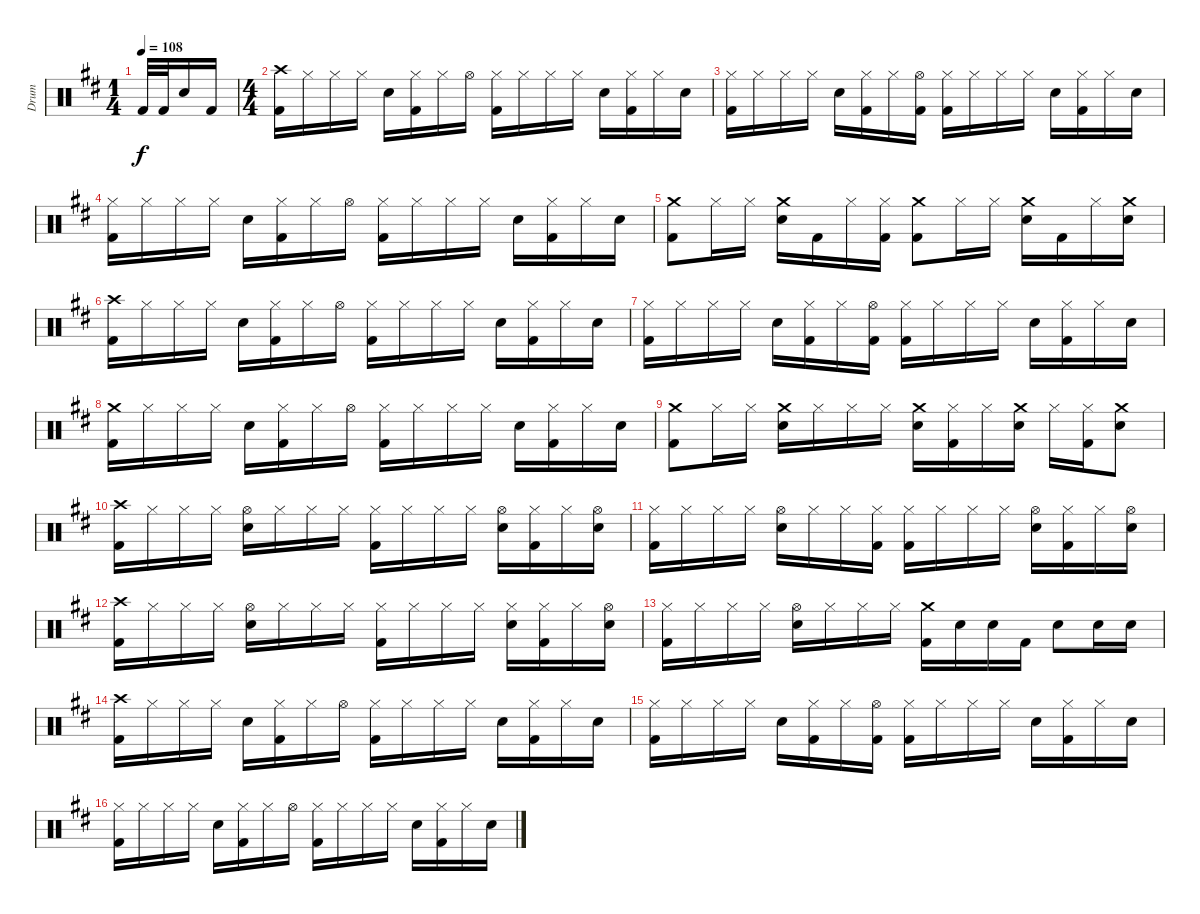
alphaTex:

\track ("Drum" "Drum") {instrument percussion}
\staff {score}
\articulation defaults
\ts (1 4)
\tempo 108
\clef neutral
\ks d "Kick (hit) 2".32{dy f} "Kick (hit) 2".32 "Snare (hit) 2".16 "Kick (hit) 2".16
|
\ts (4 4)
("Crash high (hit)" "Kick (hit) 2").16 "Hi-Hat (closed)".16 "Hi-Hat (closed)".16 "Hi-Hat (closed)".16 "Snare (hit) 2".16 ("Hi-Hat (closed)" "Kick (hit) 2").16 "Hi-Hat (closed)".16 "Hi-Hat (open)".16 ("Hi-Hat (closed)" "Kick (hit) 2").16 "Hi-Hat (closed)".16 "Hi-Hat (closed)".16 "Hi-Hat (closed)".16 "Snare (hit) 2".16 ("Hi-Hat (closed)" "Kick (hit) 2").16 "Hi-Hat (closed)".16 "Snare (hit) 2".16 |
("Hi-Hat (closed)" "Kick (hit) 2").16 "Hi-Hat (closed)".16 "Hi-Hat (closed)".16 "Hi-Hat (closed)".16 "Snare (hit) 2".16 ("Hi-Hat (closed)" "Kick (hit) 2").16 "Hi-Hat (closed)".16 ("Hi-Hat (open)" "Kick (hit) 2").16 ("Hi-Hat (closed)" "Kick (hit) 2").16 "Hi-Hat (closed)".16 "Hi-Hat (closed)".16 "Hi-Hat (closed)".16 "Snare (hit) 2".16 ("Hi-Hat (closed)" "Kick (hit) 2").16 "Hi-Hat (closed)".16 "Snare (hit) 2".16 |
("Hi-Hat (closed)" "Kick (hit) 2").16 "Hi-Hat (closed)".16 "Hi-Hat (closed)".16 "Hi-Hat (closed)".16 "Snare (hit) 2".16 ("Hi-Hat (closed)" "Kick (hit) 2").16 "Hi-Hat (closed)".16 "Hi-Hat (open)".16 ("Hi-Hat (closed)" "Kick (hit) 2").16 "Hi-Hat (closed)".16 "Hi-Hat (closed)".16 "Hi-Hat (closed)".16 "Snare (hit) 2".16 ("Hi-Hat (closed)" "Kick (hit) 2").16 "Hi-Hat (closed)".16 "Snare (hit) 2".16 |
("Crash medium (hit)" "Kick (hit) 2").8 "Hi-Hat (closed)".16 "Hi-Hat (closed)".16 ("Crash medium (hit)" "Snare (hit) 2").16 "Kick (hit) 2".16 "Hi-Hat (closed)".16 ("Hi-Hat (closed)" "Kick (hit) 2").16 ("Crash medium (hit)" "Kick (hit) 2").8 "Hi-Hat (closed)".16 "Hi-Hat (closed)".16 ("Crash medium (hit)" "Snare (hit) 2").16 "Kick (hit) 2".16 "Hi-Hat (closed)".16 ("Crash medium (hit)" "Snare (hit) 2").16 |
("Crash high (hit)" "Kick (hit) 2").16 "Hi-Hat (closed)".16 "Hi-Hat (closed)".16 "Hi-Hat (closed)".16 "Snare (hit) 2".16 ("Hi-Hat (closed)" "Kick (hit) 2").16 "Hi-Hat (closed)".16 "Hi-Hat (open)".16 ("Hi-Hat (closed)" "Kick (hit) 2").16 "Hi-Hat (closed)".16 "Hi-Hat (closed)".16 "Hi-Hat (closed)".16 "Snare (hit) 2".16 ("Hi-Hat (closed)" "Kick (hit) 2").16 "Hi-Hat (closed)".16 "Snare (hit) 2".16 |
("Hi-Hat (closed)" "Kick (hit) 2").16 "Hi-Hat (closed)".16 "Hi-Hat (closed)".16 "Hi-Hat (closed)".16 "Snare (hit) 2".16 ("Hi-Hat (closed)" "Kick (hit) 2").16 "Hi-Hat (closed)".16 ("Hi-Hat (open)" "Kick (hit) 2").16 ("Hi-Hat (closed)" "Kick (hit) 2").16 "Hi-Hat (closed)".16 "Hi-Hat (closed)".16 "Hi-Hat (closed)".16 "Snare (hit) 2".16 ("Hi-Hat (closed)" "Kick (hit) 2").16 "Hi-Hat (closed)".16 "Snare (hit) 2".16 |
("Crash medium (hit)" "Kick (hit) 2").16 "Hi-Hat (closed)".16 "Hi-Hat (closed)".16 "Hi-Hat (closed)".16 "Snare (hit) 2".16 ("Hi-Hat (closed)" "Kick (hit) 2").16 "Hi-Hat (closed)".16 "Hi-Hat (open)".16 ("Hi-Hat (closed)" "Kick (hit) 2").16 "Hi-Hat (closed)".16 "Hi-Hat (closed)".16 "Hi-Hat (closed)".16 "Snare (hit) 2".16 ("Hi-Hat (closed)" "Kick (hit) 2").16 "Hi-Hat (closed)".16 "Snare (hit) 2".16 |
("Crash medium (hit)" "Kick (hit) 2").8 "Hi-Hat (closed)".16 "Hi-Hat (closed)".16 ("Crash medium (hit)" "Snare (hit) 2").16 "Hi-Hat (closed)".16 "Hi-Hat (closed)".16 "Hi-Hat (closed)".16 ("Crash medium (hit)" "Snare (hit) 2").16 ("Hi-Hat (closed)" "Kick (hit) 2").16 "Hi-Hat (closed)".16 ("Crash medium (hit)" "Snare (hit) 2").16 "Hi-Hat (closed)".16 ("Hi-Hat (closed)" "Kick (hit) 2").16 ("Crash medium (hit)" "Snare (hit) 2").8 |
("Crash high (hit)" "Kick (hit) 2").16 "Hi-Hat (closed)".16 "Hi-Hat (closed)".16 "Hi-Hat (closed)".16 ("Hi-Hat (open)" "Snare (hit) 2").16 "Hi-Hat (closed)".16 "Hi-Hat (closed)".16 "Hi-Hat (closed)".16 ("Hi-Hat (closed)" "Kick (hit) 2").16 "Hi-Hat (closed)".16 "Hi-Hat (closed)".16 "Hi-Hat (closed)".16 ("Hi-Hat (open)" "Snare (hit) 2").16 ("Hi-Hat (closed)" "Kick (hit) 2").16 "Hi-Hat (closed)".16 ("Hi-Hat (open)" "Snare (hit) 2").16 |
("Hi-Hat (closed)" "Kick (hit) 2").16 "Hi-Hat (closed)".16 "Hi-Hat (closed)".16 "Hi-Hat (closed)".16 ("Hi-Hat (open)" "Snare (hit) 2").16 "Hi-Hat (closed)".16 "Hi-Hat (closed)".16 ("Hi-Hat (closed)" "Kick (hit) 2").16 ("Hi-Hat (closed)" "Kick (hit) 2").16 "Hi-Hat (closed)".16 "Hi-Hat (closed)".16 "Hi-Hat (closed)".16 ("Hi-Hat (open)" "Snare (hit) 2").16 ("Hi-Hat (closed)" "Kick (hit) 2").16 "Hi-Hat (closed)".16 ("Hi-Hat (open)" "Snare (hit) 2").16 |
("Crash high (hit)" "Kick (hit) 2").16 "Hi-Hat (closed)".16 "Hi-Hat (closed)".16 "Hi-Hat (closed)".16 ("Hi-Hat (open)" "Snare (hit) 2").16 "Hi-Hat (closed)".16 "Hi-Hat (closed)".16 "Hi-Hat (closed)".16 ("Hi-Hat (closed)" "Kick (hit) 2").16 "Hi-Hat (closed)".16 "Hi-Hat (closed)".16 "Hi-Hat (closed)".16 ("Hi-Hat (closed)" "Snare (hit) 2").16 ("Hi-Hat (closed)" "Kick (hit) 2").16 "Hi-Hat (closed)".16 ("Hi-Hat (open)" "Snare (hit) 2").16 |
("Hi-Hat (closed)" "Kick (hit) 2").16 "Hi-Hat (closed)".16 "Hi-Hat (closed)".16 "Hi-Hat (closed)".16 ("Hi-Hat (open)" "Snare (hit) 2").16 "Hi-Hat (closed)".16 "Hi-Hat (closed)".16 "Hi-Hat (closed)".16 ("Crash medium (hit)" "Kick (hit) 2").16 "Snare (hit) 2".16 "Snare (hit) 2".16 "Kick (hit) 2".16 "Snare (hit) 2".8 "Snare (hit) 2".16 "Snare (hit) 2".16 |
("Crash high (hit)" "Kick (hit) 2").16 "Hi-Hat (closed)".16 "Hi-Hat (closed)".16 "Hi-Hat (closed)".16 "Snare (hit) 2".16 ("Hi-Hat (closed)" "Kick (hit) 2").16 "Hi-Hat (closed)".16 "Hi-Hat (open)".16 ("Hi-Hat (closed)" "Kick (hit) 2").16 "Hi-Hat (closed)".16 "Hi-Hat (closed)".16 "Hi-Hat (closed)".16 "Snare (hit) 2".16 ("Hi-Hat (closed)" "Kick (hit) 2").16 "Hi-Hat (closed)".16 "Snare (hit) 2".16 |
("Hi-Hat (closed)" "Kick (hit) 2").16 "Hi-Hat (closed)".16 "Hi-Hat (closed)".16 "Hi-Hat (closed)".16 "Snare (hit) 2".16 ("Hi-Hat (closed)" "Kick (hit) 2").16 "Hi-Hat (closed)".16 ("Hi-Hat (open)" "Kick (hit) 2").16 ("Hi-Hat (closed)" "Kick (hit) 2").16 "Hi-Hat (closed)".16 "Hi-Hat (closed)".16 "Hi-Hat (closed)".16 "Snare (hit) 2".16 ("Hi-Hat (closed)" "Kick (hit) 2").16 "Hi-Hat (closed)".16 "Snare (hit) 2".16 |
("Hi-Hat (closed)" "Kick (hit) 2").16 "Hi-Hat (closed)".16 "Hi-Hat (closed)".16 "Hi-Hat (closed)".16 "Snare (hit) 2".16 ("Hi-Hat (closed)" "Kick (hit) 2").16 "Hi-Hat (closed)".16 "Hi-Hat (open)".16 ("Hi-Hat (closed)" "Kick (hit) 2").16 "Hi-Hat (closed)".16 "Hi-Hat (closed)".16 "Hi-Hat (closed)".16 "Snare (hit) 2".16 ("Hi-Hat (closed)" "Kick (hit) 2").16 "Hi-Hat (closed)".16 "Snare (hit) 2".16
